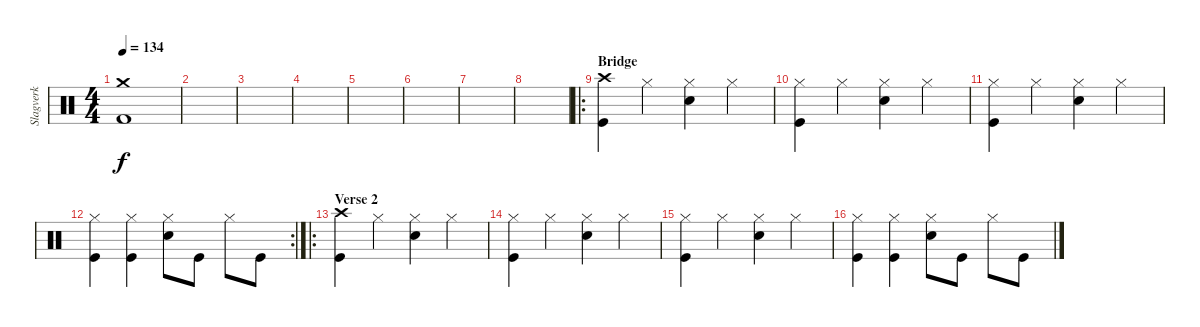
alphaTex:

\track ("Slagverk" "Slagverk") {instrument percussion}
\staff {score}
\articulation defaults
\ts (4 4)
\tempo 134
\clef neutral
\ks c
("Crash medium (hit)" "Kick (hit) 2").1{dy f} |
|
|
|
|
|
|
|
\ro
\section ("" "Bridge")
("Crash high (hit)" "Kick (hit)").4 "Hi-Hat (closed)".4 ("Hi-Hat (closed)" "Snare (hit) 2").4 "Hi-Hat (closed)".4 |
("Hi-Hat (closed)" "Kick (hit)").4 "Hi-Hat (closed)".4 ("Hi-Hat (closed)" "Snare (hit) 2").4 "Hi-Hat (closed)".4 |
("Hi-Hat (closed)" "Kick (hit)").4 "Hi-Hat (closed)".4 ("Hi-Hat (closed)" "Snare (hit) 2").4 "Hi-Hat (closed)".4 |
\rc 2
("Hi-Hat (closed)" "Kick (hit)").4 ("Hi-Hat (closed)" "Kick (hit)").4 ("Hi-Hat (closed)" "Snare (hit) 2").8 "Kick (hit)".8 "Hi-Hat (closed)".8 "Kick (hit)".8 |
\ro
\section ("" "Verse 2")
("Crash high (hit)" "Kick (hit)").4 "Hi-Hat (closed)".4 ("Hi-Hat (closed)" "Snare (hit) 2").4 "Hi-Hat (closed)".4 |
("Hi-Hat (closed)" "Kick (hit)").4 "Hi-Hat (closed)".4 ("Hi-Hat (closed)" "Snare (hit) 2").4 "Hi-Hat (closed)".4 |
("Hi-Hat (closed)" "Kick (hit)").4 "Hi-Hat (closed)".4 ("Hi-Hat (closed)" "Snare (hit) 2").4 "Hi-Hat (closed)".4 |
("Hi-Hat (closed)" "Kick (hit)").4 ("Hi-Hat (closed)" "Kick (hit)").4 ("Hi-Hat (closed)" "Snare (hit) 2").8 "Kick (hit)".8 "Hi-Hat (closed)".8 "Kick (hit)".8
